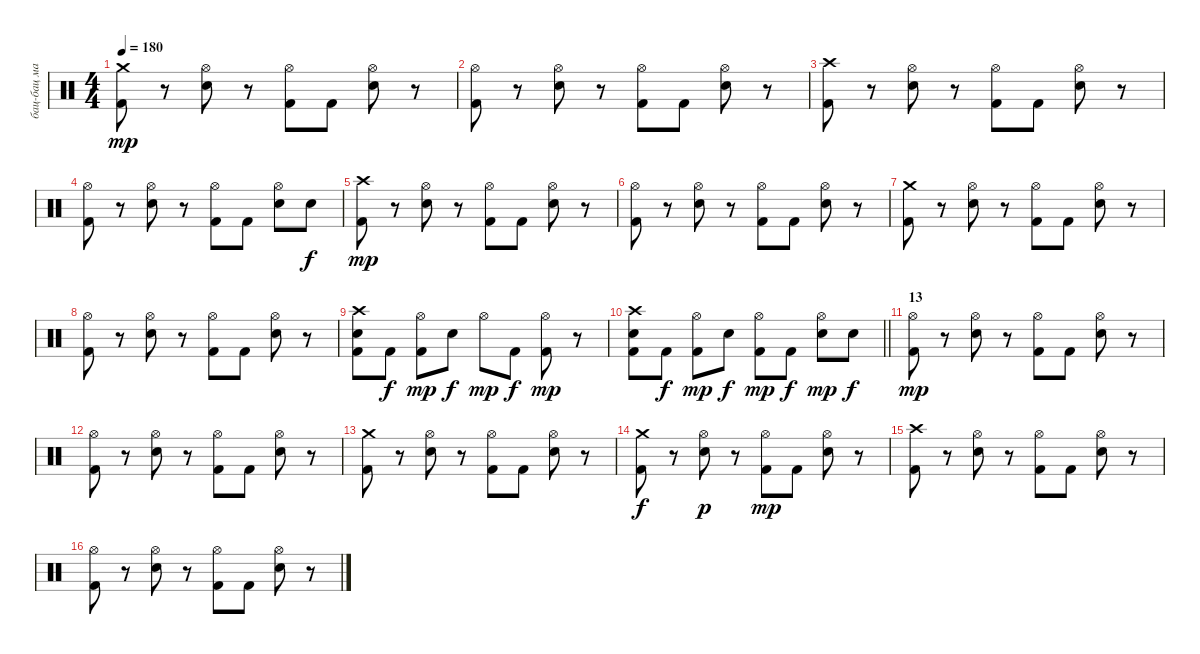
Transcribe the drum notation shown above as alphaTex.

\track ("бац-бац машина" "бац-бац ма") {instrument percussion}
\staff {score}
\articulation defaults
\ts (4 4)
\tempo 180
\clef neutral
\ks c
("Crash medium (hit)" "Kick (hit) 2").8{dy mp} r.8 ("Hi-Hat (open)" "Snare (hit) 2").8 r.8 ("Hi-Hat (open)" "Kick (hit) 2").8 "Kick (hit) 2".8 ("Hi-Hat (open)" "Snare (hit) 2").8 r.8 |
("Hi-Hat (open)" "Kick (hit) 2").8 r.8 ("Hi-Hat (open)" "Snare (hit) 2").8 r.8 ("Hi-Hat (open)" "Kick (hit) 2").8 "Kick (hit) 2".8 ("Hi-Hat (open)" "Snare (hit) 2").8 r.8 |
("Crash high (hit)" "Kick (hit) 2").8 r.8 ("Hi-Hat (open)" "Snare (hit) 2").8 r.8 ("Hi-Hat (open)" "Kick (hit) 2").8 "Kick (hit) 2".8 ("Hi-Hat (open)" "Snare (hit) 2").8 r.8 |
("Hi-Hat (open)" "Kick (hit) 2").8 r.8 ("Hi-Hat (open)" "Snare (hit) 2").8 r.8 ("Hi-Hat (open)" "Kick (hit) 2").8 "Kick (hit) 2".8 ("Hi-Hat (open)" "Snare (hit) 2").8 "Snare (hit) 2".8{dy f} |
("Crash high (hit)" "Kick (hit) 2").8{dy mp} r.8 ("Hi-Hat (open)" "Snare (hit) 2").8 r.8 ("Hi-Hat (open)" "Kick (hit) 2").8 "Kick (hit) 2".8 ("Hi-Hat (open)" "Snare (hit) 2").8 r.8 |
("Hi-Hat (open)" "Kick (hit) 2").8 r.8 ("Hi-Hat (open)" "Snare (hit) 2").8 r.8 ("Hi-Hat (open)" "Kick (hit) 2").8 "Kick (hit) 2".8 ("Hi-Hat (open)" "Snare (hit) 2").8 r.8 |
("Crash medium (hit)" "Kick (hit) 2").8 r.8 ("Hi-Hat (open)" "Snare (hit) 2").8 r.8 ("Hi-Hat (open)" "Kick (hit) 2").8 "Kick (hit) 2".8 ("Hi-Hat (open)" "Snare (hit) 2").8 r.8 |
("Hi-Hat (open)" "Kick (hit) 2").8 r.8 ("Hi-Hat (open)" "Snare (hit) 2").8 r.8 ("Hi-Hat (open)" "Kick (hit) 2").8 "Kick (hit) 2".8 ("Hi-Hat (open)" "Snare (hit) 2").8 r.8 |
("Crash high (hit)" "Snare (hit) 2" "Kick (hit) 2").8 "Kick (hit) 2".8{dy f} ("Hi-Hat (open)" "Kick (hit) 2").8{dy mp} "Snare (hit) 2".8{dy f} "Hi-Hat (open)".8{dy mp} "Kick (hit) 2".8{dy f} ("Hi-Hat (open)" "Kick (hit) 2").8{dy mp} r.8 |
\barLineRight lightlight
("Crash high (hit)" "Snare (hit) 2" "Kick (hit) 2").8 "Kick (hit) 2".8{dy f} ("Hi-Hat (open)" "Kick (hit) 2").8{dy mp} "Snare (hit) 2".8{dy f} ("Hi-Hat (open)" "Kick (hit) 2").8{dy mp} "Kick (hit) 2".8{dy f} ("Hi-Hat (open)" "Snare (hit) 2").8{dy mp} "Snare (hit) 2".8{dy f} |
\section ("" "13")
("Hi-Hat (open)" "Kick (hit) 2").8{dy mp} r.8 ("Hi-Hat (open)" "Snare (hit) 2").8 r.8 ("Hi-Hat (open)" "Kick (hit) 2").8 "Kick (hit) 2".8 ("Hi-Hat (open)" "Snare (hit) 2").8 r.8 |
("Hi-Hat (open)" "Kick (hit) 2").8 r.8 ("Hi-Hat (open)" "Snare (hit) 2").8 r.8 ("Hi-Hat (open)" "Kick (hit) 2").8 "Kick (hit) 2".8 ("Hi-Hat (open)" "Snare (hit) 2").8 r.8 |
("Crash medium (hit)" "Kick (hit) 2").8 r.8 ("Hi-Hat (open)" "Snare (hit) 2").8 r.8 ("Hi-Hat (open)" "Kick (hit) 2").8 "Kick (hit) 2".8 ("Hi-Hat (open)" "Snare (hit) 2").8 r.8 |
("Crash medium (hit)" "Kick (hit) 2").8{dy f} r.8 ("Hi-Hat (open)" "Snare (hit) 2").8{dy p} r.8 ("Hi-Hat (open)" "Kick (hit) 2").8{dy mp} "Kick (hit) 2".8 ("Hi-Hat (open)" "Snare (hit) 2").8 r.8 |
("Crash high (hit)" "Kick (hit) 2").8 r.8 ("Hi-Hat (open)" "Snare (hit) 2").8 r.8 ("Hi-Hat (open)" "Kick (hit) 2").8 "Kick (hit) 2".8 ("Hi-Hat (open)" "Snare (hit) 2").8 r.8 |
("Hi-Hat (open)" "Kick (hit) 2").8 r.8 ("Hi-Hat (open)" "Snare (hit) 2").8 r.8 ("Hi-Hat (open)" "Kick (hit) 2").8 "Kick (hit) 2".8 ("Hi-Hat (open)" "Snare (hit) 2").8 r.8
